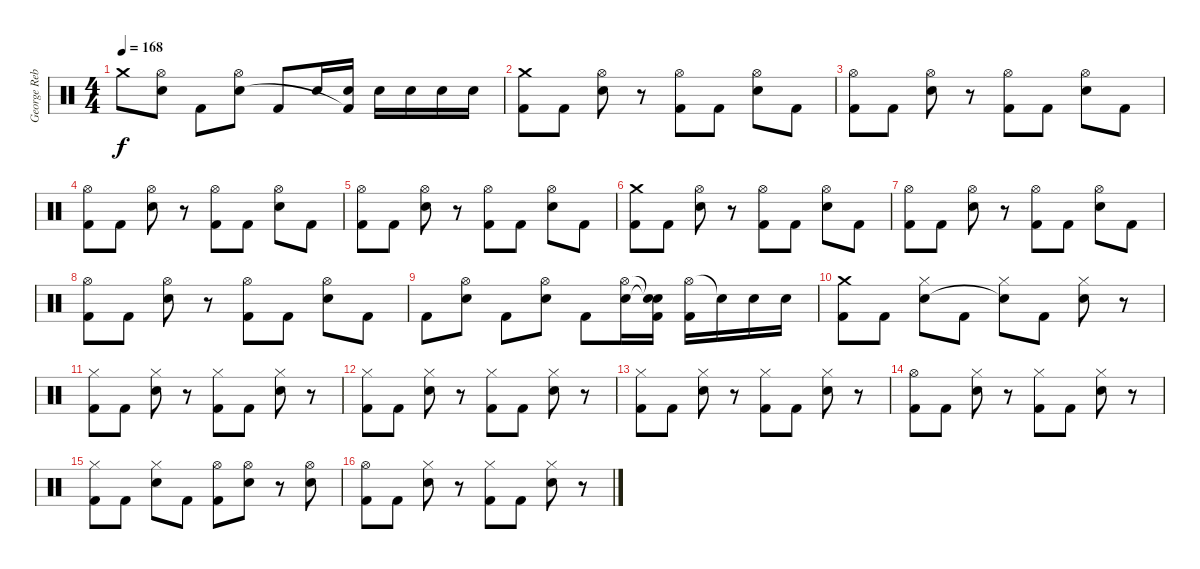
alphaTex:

\track ("George Rebelo" "George Reb") {instrument percussion}
\staff {score}
\articulation defaults
\ts (4 4)
\tempo 168
\clef neutral
\ks c "Crash medium (hit)".8{dy f}
("Hi-Hat (open)" "Electric Snare (hit)").8 "Kick (hit) 2".8 ("Hi-Hat (open)" "Electric Snare (hit)").8 "Kick (hit) 2".8 "Electric Snare (hit)".16 ("Electric Snare (hit)" "Kick (hit) 2"{t}).16 "Electric Snare (hit)".16 "Electric Snare (hit)".16 "Electric Snare (hit)".16 "Electric Snare (hit)".16 |
("Crash medium (hit)" "Kick (hit) 2").8 "Kick (hit) 2".8 ("Hi-Hat (open)" "Electric Snare (hit)").8 r.8 ("Hi-Hat (open)" "Kick (hit) 2").8 "Kick (hit) 2".8 ("Hi-Hat (open)" "Electric Snare (hit)").8 "Kick (hit) 2".8 |
("Hi-Hat (open)" "Kick (hit) 2").8 "Kick (hit) 2".8 ("Hi-Hat (open)" "Electric Snare (hit)").8 r.8 ("Hi-Hat (open)" "Kick (hit) 2").8 "Kick (hit) 2".8 ("Hi-Hat (open)" "Electric Snare (hit)").8 "Kick (hit) 2".8 |
("Hi-Hat (open)" "Kick (hit) 2").8 "Kick (hit) 2".8 ("Hi-Hat (open)" "Electric Snare (hit)").8 r.8 ("Hi-Hat (open)" "Kick (hit) 2").8 "Kick (hit) 2".8 ("Hi-Hat (open)" "Electric Snare (hit)").8 "Kick (hit) 2".8 |
("Hi-Hat (open)" "Kick (hit) 2").8 "Kick (hit) 2".8 ("Hi-Hat (open)" "Electric Snare (hit)").8 r.8 ("Hi-Hat (open)" "Kick (hit) 2").8 "Kick (hit) 2".8 ("Hi-Hat (open)" "Electric Snare (hit)").8 "Kick (hit) 2".8 |
("Crash medium (hit)" "Kick (hit) 2").8 "Kick (hit) 2".8 ("Hi-Hat (open)" "Electric Snare (hit)").8 r.8 ("Hi-Hat (open)" "Kick (hit) 2").8 "Kick (hit) 2".8 ("Hi-Hat (open)" "Electric Snare (hit)").8 "Kick (hit) 2".8 |
("Hi-Hat (open)" "Kick (hit) 2").8 "Kick (hit) 2".8 ("Hi-Hat (open)" "Electric Snare (hit)").8 r.8 ("Hi-Hat (open)" "Kick (hit) 2").8 "Kick (hit) 2".8 ("Hi-Hat (open)" "Electric Snare (hit)").8 "Kick (hit) 2".8 |
("Hi-Hat (open)" "Kick (hit) 2").8 "Kick (hit) 2".8 ("Hi-Hat (open)" "Electric Snare (hit)").8 r.8 ("Hi-Hat (open)" "Kick (hit) 2").8 "Kick (hit) 2".8 ("Hi-Hat (open)" "Electric Snare (hit)").8 "Kick (hit) 2".8 |
"Kick (hit) 2".8 ("Hi-Hat (open)" "Electric Snare (hit)").8 "Kick (hit) 2".8 ("Hi-Hat (open)" "Electric Snare (hit)").8 "Kick (hit) 2".8 ("Hi-Hat (open)" "Electric Snare (hit)").16 ("Snare (hit)"{t} "Electric Snare (hit)"{t} "Kick (hit) 2").16 ("Hi-Hat (open)" "Kick (hit) 2").16 "Snare (hit)"{t}.16 "Electric Snare (hit)".16 "Electric Snare (hit)".16 |
("Crash medium (hit)" "Kick (hit) 2").8 "Kick (hit) 2".8 ("Hi-Hat (closed)" "Electric Snare (hit)").8 "Kick (hit) 2".8 ("Hi-Hat (closed)" "Snare (hit)"{t}).8 "Kick (hit) 2".8 ("Hi-Hat (closed)" "Electric Snare (hit)").8 r.8 |
("Hi-Hat (closed)" "Kick (hit) 2").8 "Kick (hit) 2".8 ("Hi-Hat (closed)" "Electric Snare (hit)").8 r.8 ("Hi-Hat (closed)" "Kick (hit) 2").8 "Kick (hit) 2".8 ("Hi-Hat (closed)" "Electric Snare (hit)").8 r.8 |
("Hi-Hat (closed)" "Kick (hit) 2").8 "Kick (hit) 2".8 ("Hi-Hat (closed)" "Electric Snare (hit)").8 r.8 ("Hi-Hat (closed)" "Kick (hit) 2").8 "Kick (hit) 2".8 ("Hi-Hat (closed)" "Electric Snare (hit)").8 r.8 |
("Hi-Hat (closed)" "Kick (hit) 2").8 "Kick (hit) 2".8 ("Hi-Hat (closed)" "Electric Snare (hit)").8 r.8 ("Hi-Hat (closed)" "Kick (hit) 2").8 "Kick (hit) 2".8 ("Hi-Hat (closed)" "Electric Snare (hit)").8 r.8 |
("Hi-Hat (open)" "Kick (hit) 2").8 "Kick (hit) 2".8 ("Hi-Hat (closed)" "Electric Snare (hit)").8 r.8 ("Hi-Hat (closed)" "Kick (hit) 2").8 "Kick (hit) 2".8 ("Hi-Hat (closed)" "Electric Snare (hit)").8 r.8 |
("Hi-Hat (closed)" "Kick (hit) 2").8 "Kick (hit) 2".8 ("Hi-Hat (closed)" "Electric Snare (hit)").8 "Kick (hit) 2".8 ("Hi-Hat (open)" "Kick (hit) 2").8 ("Hi-Hat (open)" "Electric Snare (hit)").8 r.8 ("Hi-Hat (open)" "Electric Snare (hit)").8 |
("Hi-Hat (open)" "Kick (hit) 2").8 "Kick (hit) 2".8 ("Hi-Hat (closed)" "Electric Snare (hit)").8 r.8 ("Hi-Hat (closed)" "Kick (hit) 2").8 "Kick (hit) 2".8 ("Hi-Hat (closed)" "Electric Snare (hit)").8 r.8
